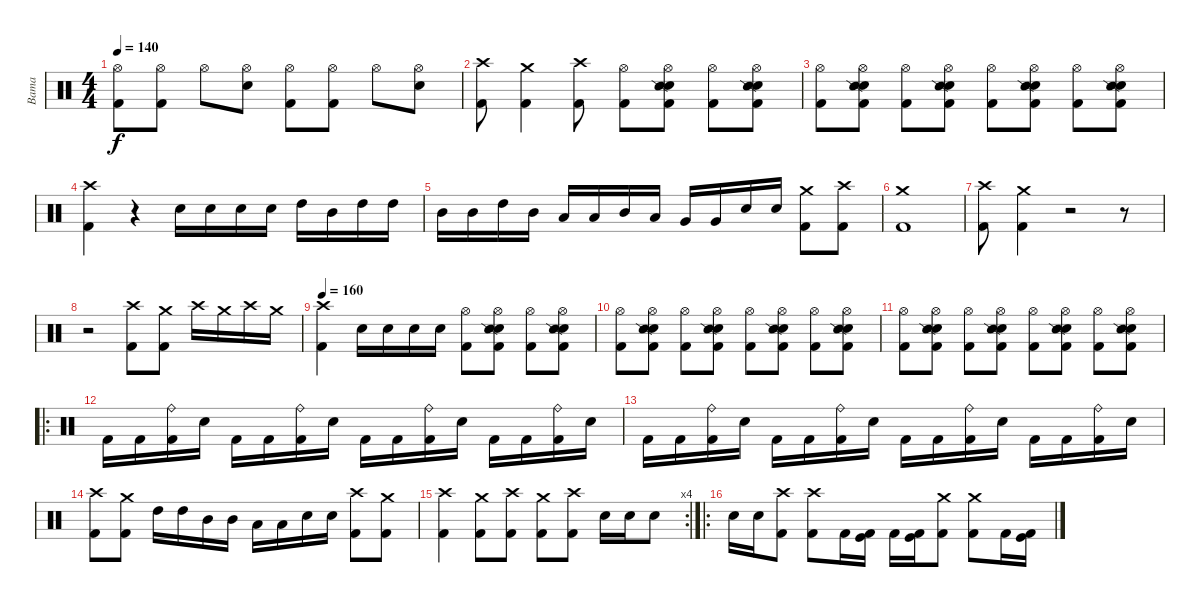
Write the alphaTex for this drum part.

\track ("Bama" "Bama") {instrument percussion}
\staff {score}
\articulation defaults
\ts (4 4)
\tempo 140
\clef neutral
\ks c
("Hi-Hat (open)" "Kick (hit) 2").8{dy f} ("Hi-Hat (open)" "Kick (hit) 2").8 "Hi-Hat (open)".8 ("Hi-Hat (open)" "Electric Snare (hit)").8 ("Hi-Hat (open)" "Kick (hit) 2").8 ("Hi-Hat (open)" "Kick (hit) 2").8 "Hi-Hat (open)".8 ("Hi-Hat (open)" "Electric Snare (hit)").8 |
("Crash high (hit)" "Kick (hit) 2").8 ("Crash medium (hit)" "Kick (hit) 2").4 ("Crash high (hit)" "Kick (hit) 2").8 ("Hi-Hat (open)" "Kick (hit) 2").8 ("Hi-Hat (open)" "Electric Snare (hit)" "Snare (side stick) 2" "Kick (hit) 2").8 ("Hi-Hat (open)" "Kick (hit) 2").8 ("Hi-Hat (open)" "Electric Snare (hit)" "Snare (side stick) 2" "Kick (hit) 2").8 |
("Hi-Hat (open)" "Kick (hit) 2").8 ("Hi-Hat (open)" "Electric Snare (hit)" "Snare (side stick) 2" "Kick (hit) 2").8 ("Hi-Hat (open)" "Kick (hit) 2").8 ("Hi-Hat (open)" "Electric Snare (hit)" "Snare (side stick) 2" "Kick (hit) 2").8 ("Hi-Hat (open)" "Kick (hit) 2").8 ("Hi-Hat (open)" "Electric Snare (hit)" "Snare (side stick) 2" "Kick (hit) 2").8 ("Hi-Hat (open)" "Kick (hit) 2").8 ("Hi-Hat (open)" "Electric Snare (hit)" "Snare (side stick) 2" "Kick (hit) 2").8 |
("Crash high (hit)" "Kick (hit) 2").4 r.4 "Electric Snare (hit)".16 "Electric Snare (hit)".16 "Electric Snare (hit)".16 "Electric Snare (hit)".16 "High Tom (hit)".16 "Mid Tom (hit)".16 "High Tom (hit)".16 "High Tom (hit)".16 |
"Mid Tom (hit)".16 "Mid Tom (hit)".16 "High Tom (hit)".16 "Mid Tom (hit)".16 "Low Tom (hit)".16 "Low Tom (hit)".16 "Mid Tom (hit)".16 "Low Tom (hit)".16 "Very Low Tom (hit)".16 "Very Low Tom (hit)".16 "Electric Snare (hit)".16 "Electric Snare (hit)".16 ("Crash medium (hit)" "Kick (hit) 2").8 ("Crash high (hit)" "Kick (hit) 2").8 |
("Crash medium (hit)" "Kick (hit) 2").1 |
("Crash high (hit)" "Kick (hit) 2").8 ("Crash medium (hit)" "Kick (hit) 2").4 r.2 r.8 |
r.2 ("Crash high (hit)" "Kick (hit) 2").8 ("Crash medium (hit)" "Kick (hit) 2").8 "Crash high (hit)".16 "Crash medium (hit)".16 "Crash high (hit)".16 "Crash medium (hit)".16 |
\tempo 160
("Crash high (hit)" "Kick (hit) 2").4 "Electric Snare (hit)".16 "Electric Snare (hit)".16 "Electric Snare (hit)".16 "Electric Snare (hit)".16 ("Hi-Hat (open)" "Kick (hit) 2").8 ("Hi-Hat (open)" "Electric Snare (hit)" "Snare (side stick) 2" "Kick (hit) 2").8 ("Hi-Hat (open)" "Kick (hit) 2").8 ("Hi-Hat (open)" "Electric Snare (hit)" "Snare (side stick) 2" "Kick (hit) 2").8 |
("Hi-Hat (open)" "Kick (hit) 2").8 ("Hi-Hat (open)" "Electric Snare (hit)" "Snare (side stick) 2" "Kick (hit) 2").8 ("Hi-Hat (open)" "Kick (hit) 2").8 ("Hi-Hat (open)" "Electric Snare (hit)" "Snare (side stick) 2" "Kick (hit) 2").8 ("Hi-Hat (open)" "Kick (hit) 2").8 ("Hi-Hat (open)" "Electric Snare (hit)" "Snare (side stick) 2" "Kick (hit) 2").8 ("Hi-Hat (open)" "Kick (hit) 2").8 ("Hi-Hat (open)" "Electric Snare (hit)" "Snare (side stick) 2" "Kick (hit) 2").8 |
("Hi-Hat (open)" "Kick (hit) 2").8 ("Hi-Hat (open)" "Electric Snare (hit)" "Snare (side stick) 2" "Kick (hit) 2").8 ("Hi-Hat (open)" "Kick (hit) 2").8 ("Hi-Hat (open)" "Electric Snare (hit)" "Snare (side stick) 2" "Kick (hit) 2").8 ("Hi-Hat (open)" "Kick (hit) 2").8 ("Hi-Hat (open)" "Electric Snare (hit)" "Snare (side stick) 2" "Kick (hit) 2").8 ("Hi-Hat (open)" "Kick (hit) 2").8 ("Hi-Hat (open)" "Electric Snare (hit)" "Snare (side stick) 2" "Kick (hit) 2").8 |
\ro "Kick (hit) 2".16 "Kick (hit) 2".16
("Ride (bell)" "Kick (hit) 2").16 "Electric Snare (hit)".16 "Kick (hit) 2".16 "Kick (hit) 2".16 ("Ride (bell)" "Kick (hit) 2").16 "Electric Snare (hit)".16 "Kick (hit) 2".16 "Kick (hit) 2".16 ("Ride (bell)" "Kick (hit) 2").16 "Electric Snare (hit)".16 "Kick (hit) 2".16 "Kick (hit) 2".16 ("Ride (bell)" "Kick (hit) 2").16 "Electric Snare (hit)".16 |
"Kick (hit) 2".16 "Kick (hit) 2".16 ("Ride (bell)" "Kick (hit) 2").16 "Electric Snare (hit)".16 "Kick (hit) 2".16 "Kick (hit) 2".16 ("Ride (bell)" "Kick (hit) 2").16 "Electric Snare (hit)".16 "Kick (hit) 2".16 "Kick (hit) 2".16 ("Ride (bell)" "Kick (hit) 2").16 "Electric Snare (hit)".16 "Kick (hit) 2".16 "Kick (hit) 2".16 ("Ride (bell)" "Kick (hit) 2").16 "Electric Snare (hit)".16 |
("Crash high (hit)" "Kick (hit) 2").8 ("Crash medium (hit)" "Kick (hit) 2").8 "High Tom (hit)".16 "High Tom (hit)".16 "Mid Tom (hit)".16 "Mid Tom (hit)".16 "Low Tom (hit)".16 "Low Tom (hit)".16 "Electric Snare (hit)".16 "Electric Snare (hit)".16 ("Crash high (hit)" "Kick (hit) 2").8 ("Crash medium (hit)" "Kick (hit) 2").8 |
\rc 4
("Crash high (hit)" "Kick (hit) 2").4 ("Crash medium (hit)" "Kick (hit) 2").8 ("Crash high (hit)" "Kick (hit) 2").8 ("Crash medium (hit)" "Kick (hit) 2").8 ("Crash high (hit)" "Kick (hit) 2").8 "Electric Snare (hit)".16 "Electric Snare (hit)".16 "Electric Snare (hit)".8 |
\ro "Electric Snare (hit)".16 "Electric Snare (hit)".16
("Crash high (hit)" "Kick (hit) 2").8 ("Crash high (hit)" "Kick (hit) 2").8 "Kick (hit) 2".16 ("Kick (hit)" "Kick (hit) 2").16 "Kick (hit) 2".16 ("Kick (hit)" "Kick (hit) 2").16 ("Crash medium (hit)" "Kick (hit) 2").8 ("Crash medium (hit)" "Kick (hit) 2").8 "Kick (hit) 2".16 ("Kick (hit)" "Kick (hit) 2").16
